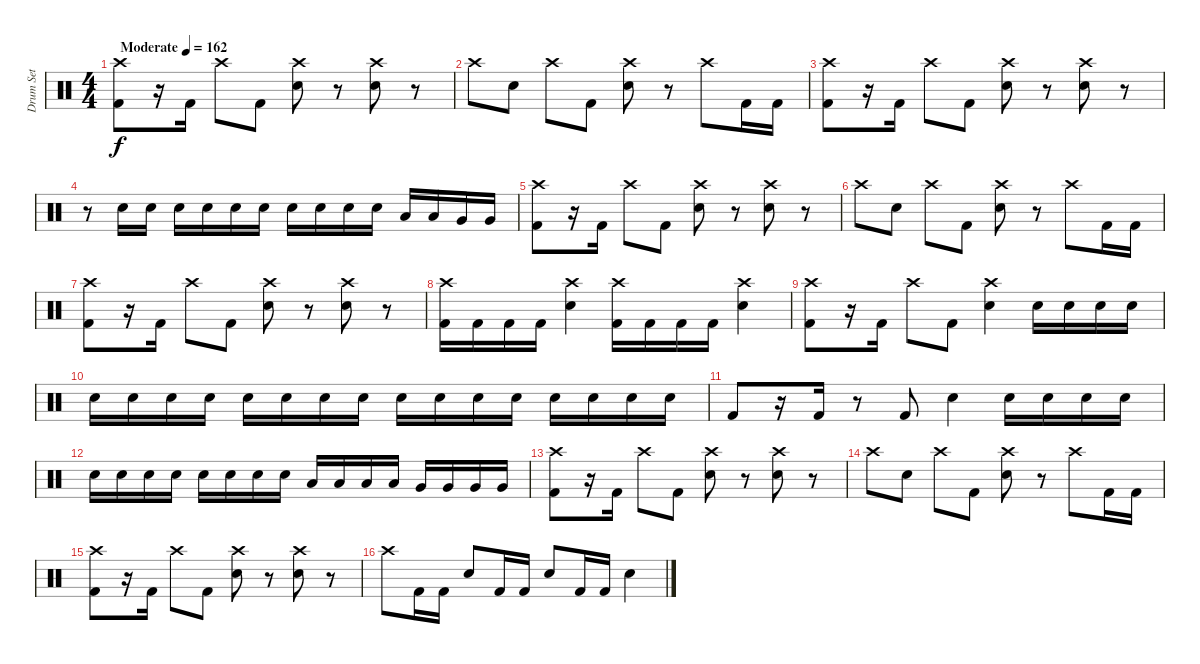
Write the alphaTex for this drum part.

\track ("Drum Set" "Drum Set") {solo instrument percussion}
\staff {score}
\articulation defaults
\ts (4 4)
\tempo (162 "Moderate")
\clef neutral
\ks c
("Crash high (hit)" "Kick (hit) 2").8{dy f} r.16 "Kick (hit) 2".16 "Crash high (hit)".8 "Kick (hit) 2".8 ("Crash high (hit)" "Snare (hit) 2").8 r.8 ("Crash high (hit)" "Snare (hit) 2").8 r.8 |
"Crash high (hit)".8 "Snare (hit) 2".8 "Crash high (hit)".8 "Kick (hit) 2".8 ("Crash high (hit)" "Snare (hit) 2").8 r.8 "Crash high (hit)".8 "Kick (hit) 2".16 "Kick (hit) 2".16 |
("Crash high (hit)" "Kick (hit) 2").8 r.16 "Kick (hit) 2".16 "Crash high (hit)".8 "Kick (hit) 2".8 ("Crash high (hit)" "Snare (hit) 2").8 r.8 ("Crash high (hit)" "Snare (hit) 2").8 r.8 |
r.8{volume 7} "Snare (hit) 2".16{volume 13} "Snare (hit) 2".16 "Snare (hit) 2".16 "Snare (hit) 2".16 "Snare (hit) 2".16 "Snare (hit) 2".16 "Snare (hit) 2".16 "Snare (hit) 2".16 "Snare (hit) 2".16 "Snare (hit) 2".16 "Low Tom (hit)".16 "Low Tom (hit)".16 "Very Low Tom (hit)".16 "Very Low Tom (hit)".16 |
("Crash high (hit)" "Kick (hit) 2").8 r.16 "Kick (hit) 2".16 "Crash high (hit)".8 "Kick (hit) 2".8 ("Crash high (hit)" "Snare (hit) 2").8 r.8 ("Crash high (hit)" "Snare (hit) 2").8 r.8 |
"Crash high (hit)".8 "Snare (hit) 2".8 "Crash high (hit)".8 "Kick (hit) 2".8 ("Crash high (hit)" "Snare (hit) 2").8 r.8 "Crash high (hit)".8 "Kick (hit) 2".16 "Kick (hit) 2".16 |
("Crash high (hit)" "Kick (hit) 2").8 r.16 "Kick (hit) 2".16 "Crash high (hit)".8 "Kick (hit) 2".8 ("Crash high (hit)" "Snare (hit) 2").8 r.8 ("Crash high (hit)" "Snare (hit) 2").8 r.8 |
("Crash high (hit)" "Kick (hit) 2").16 "Kick (hit) 2".16 "Kick (hit) 2".16 "Kick (hit) 2".16 ("Crash high (hit)" "Snare (hit) 2").4 ("Crash high (hit)" "Kick (hit) 2").16 "Kick (hit) 2".16 "Kick (hit) 2".16 "Kick (hit) 2".16 ("Crash high (hit)" "Snare (hit) 2").4 |
("Crash high (hit)" "Kick (hit) 2").8 r.16 "Kick (hit) 2".16 "Crash high (hit)".8 "Kick (hit) 2".8 ("Crash high (hit)" "Snare (hit) 2").4 "Electric Snare (hit)".16{volume 6} "Electric Snare (hit)".16 "Electric Snare (hit)".16 "Electric Snare (hit)".16 |
"Electric Snare (hit)".16 "Electric Snare (hit)".16 "Electric Snare (hit)".16 "Electric Snare (hit)".16 "Electric Snare (hit)".16 "Electric Snare (hit)".16 "Electric Snare (hit)".16 "Electric Snare (hit)".16 "Electric Snare (hit)".16{volume 13} "Electric Snare (hit)".16{volume 6} "Electric Snare (hit)".16 "Electric Snare (hit)".16 "Electric Snare (hit)".16 "Electric Snare (hit)".16 "Electric Snare (hit)".16 "Electric Snare (hit)".16 |
"Kick (hit) 2".8{volume 13} r.16 "Kick (hit) 2".16 r.8 "Kick (hit) 2".8 "Snare (hit) 2".4 "Electric Snare (hit)".16{volume 6} "Electric Snare (hit)".16 "Electric Snare (hit)".16 "Electric Snare (hit)".16 |
"Electric Snare (hit)".16 "Electric Snare (hit)".16 "Electric Snare (hit)".16 "Electric Snare (hit)".16 "Electric Snare (hit)".16 "Electric Snare (hit)".16 "Electric Snare (hit)".16 "Electric Snare (hit)".16 "Low Tom (hit)".16{volume 13} "Low Tom (hit)".16 "Low Tom (hit)".16 "Low Tom (hit)".16 "Very Low Tom (hit)".16 "Very Low Tom (hit)".16 "Very Low Tom (hit)".16 "Very Low Tom (hit)".16 |
("Crash high (hit)" "Kick (hit) 2").8 r.16 "Kick (hit) 2".16 "Crash high (hit)".8 "Kick (hit) 2".8 ("Crash high (hit)" "Snare (hit) 2").8 r.8 ("Crash high (hit)" "Snare (hit) 2").8 r.8 |
"Crash high (hit)".8 "Snare (hit) 2".8 "Crash high (hit)".8 "Kick (hit) 2".8 ("Crash high (hit)" "Snare (hit) 2").8 r.8 "Crash high (hit)".8 "Kick (hit) 2".16 "Kick (hit) 2".16 |
("Crash high (hit)" "Kick (hit) 2").8 r.16 "Kick (hit) 2".16 "Crash high (hit)".8 "Kick (hit) 2".8 ("Crash high (hit)" "Snare (hit) 2").8 r.8 ("Crash high (hit)" "Snare (hit) 2").8 r.8 |
"Crash high (hit)".8 "Kick (hit) 2".16 "Kick (hit) 2".16 "Snare (hit) 2".8 "Kick (hit) 2".16 "Kick (hit) 2".16 "Snare (hit) 2".8 "Kick (hit) 2".16 "Kick (hit) 2".16 "Snare (hit) 2".4
